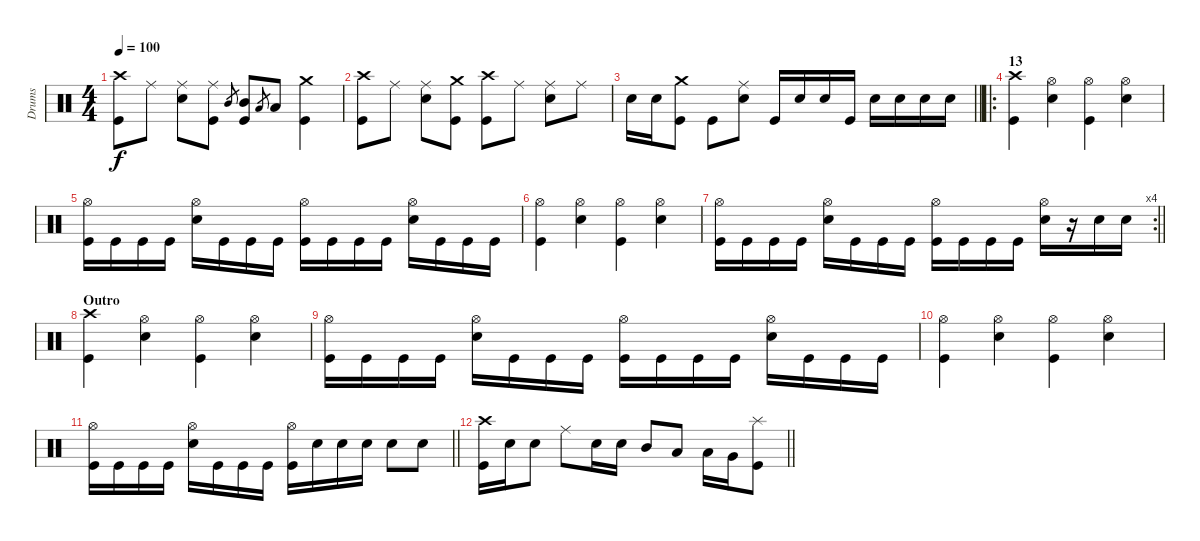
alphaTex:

\track ("Drums" "Drums") {instrument percussion}
\staff {score}
\articulation defaults
\ts (4 4)
\tempo 100
\clef neutral
\ks c
("Crash high (hit)" "Kick (hit)").8{dy f} "Ride (middle)".8 ("Ride (middle)" "Electric Snare (hit)").8 ("Ride (middle)" "Kick (hit)").8 "Mid Tom (hit)".8{gr} ("Mid Tom (hit)" "Kick (hit)").8 "Low Tom (hit)".8{gr} "Low Tom (hit)".8 ("Crash medium (hit)" "Kick (hit)").4 |
("Crash high (hit)" "Kick (hit)").8 "Ride (middle)".8 ("Ride (middle)" "Electric Snare (hit)").8 ("Crash medium (hit)" "Kick (hit)").8 ("Crash high (hit)" "Kick (hit)").8 "Ride (middle)".8 ("Ride (middle)" "Electric Snare (hit)").8 "Ride (middle)".8 |
\barLineRight lightlight "Electric Snare (hit)".16 "Electric Snare (hit)".16
("Crash medium (hit)" "Kick (hit)").8 "Kick (hit)".8 ("Ride (middle)" "Electric Snare (hit)").8 "Kick (hit)".16 "Electric Snare (hit)".16 "Electric Snare (hit)".16 "Kick (hit)".16 "Electric Snare (hit)".16 "Electric Snare (hit)".16 "Electric Snare (hit)".16 "Electric Snare (hit)".16 |
\ro
\section ("" "13")
("Crash high (hit)" "Kick (hit)").4 ("Hi-Hat (open)" "Electric Snare (hit)").4 ("Hi-Hat (open)" "Kick (hit)").4 ("Hi-Hat (open)" "Electric Snare (hit)").4 |
("Hi-Hat (open)" "Kick (hit)").16 "Kick (hit)".16 "Kick (hit)".16 "Kick (hit)".16 ("Hi-Hat (open)" "Electric Snare (hit)").16 "Kick (hit)".16 "Kick (hit)".16 "Kick (hit)".16 ("Hi-Hat (open)" "Kick (hit)").16 "Kick (hit)".16 "Kick (hit)".16 "Kick (hit)".16 ("Hi-Hat (open)" "Electric Snare (hit)").16 "Kick (hit)".16 "Kick (hit)".16 "Kick (hit)".16 |
("Hi-Hat (open)" "Kick (hit)").4 ("Hi-Hat (open)" "Electric Snare (hit)").4 ("Hi-Hat (open)" "Kick (hit)").4 ("Hi-Hat (open)" "Electric Snare (hit)").4 |
\rc 4
\barLineRight lightlight
("Hi-Hat (open)" "Kick (hit)").16 "Kick (hit)".16 "Kick (hit)".16 "Kick (hit)".16 ("Hi-Hat (open)" "Electric Snare (hit)").16 "Kick (hit)".16 "Kick (hit)".16 "Kick (hit)".16 ("Hi-Hat (open)" "Kick (hit)").16 "Kick (hit)".16 "Kick (hit)".16 "Kick (hit)".16 ("Hi-Hat (open)" "Electric Snare (hit)").16 r.16 "Electric Snare (hit)".16 "Electric Snare (hit)".16 |
\section ("" "Outro")
("Crash high (hit)" "Kick (hit)").4 ("Hi-Hat (open)" "Electric Snare (hit)").4 ("Hi-Hat (open)" "Kick (hit)").4 ("Hi-Hat (open)" "Electric Snare (hit)").4 |
("Hi-Hat (open)" "Kick (hit)").16 "Kick (hit)".16 "Kick (hit)".16 "Kick (hit)".16 ("Hi-Hat (open)" "Electric Snare (hit)").16 "Kick (hit)".16 "Kick (hit)".16 "Kick (hit)".16 ("Hi-Hat (open)" "Kick (hit)").16 "Kick (hit)".16 "Kick (hit)".16 "Kick (hit)".16 ("Hi-Hat (open)" "Electric Snare (hit)").16 "Kick (hit)".16 "Kick (hit)".16 "Kick (hit)".16 |
("Hi-Hat (open)" "Kick (hit)").4 ("Hi-Hat (open)" "Electric Snare (hit)").4 ("Hi-Hat (open)" "Kick (hit)").4 ("Hi-Hat (open)" "Electric Snare (hit)").4 |
\barLineRight lightlight
("Hi-Hat (open)" "Kick (hit)").16 "Kick (hit)".16 "Kick (hit)".16 "Kick (hit)".16 ("Hi-Hat (open)" "Electric Snare (hit)").16 "Kick (hit)".16 "Kick (hit)".16 "Kick (hit)".16 ("Hi-Hat (open)" "Kick (hit)").16 "Electric Snare (hit)".16 "Electric Snare (hit)".16 "Electric Snare (hit)".16 "Electric Snare (hit)".8 "Electric Snare (hit)".8 |
\section ("" "")
\barLineRight lightlight
("Crash high (hit)" "Kick (hit)").16 "Electric Snare (hit)".16 "Electric Snare (hit)".8 "Ride (middle)".8 "Electric Snare (hit)".16 "Electric Snare (hit)".16 "Mid Tom (hit)".8 "Low Tom (hit)".8 "Low Tom (hit)".16 "Very Low Tom (hit)".16 ("Splash (hit)" "Kick (hit)").8
